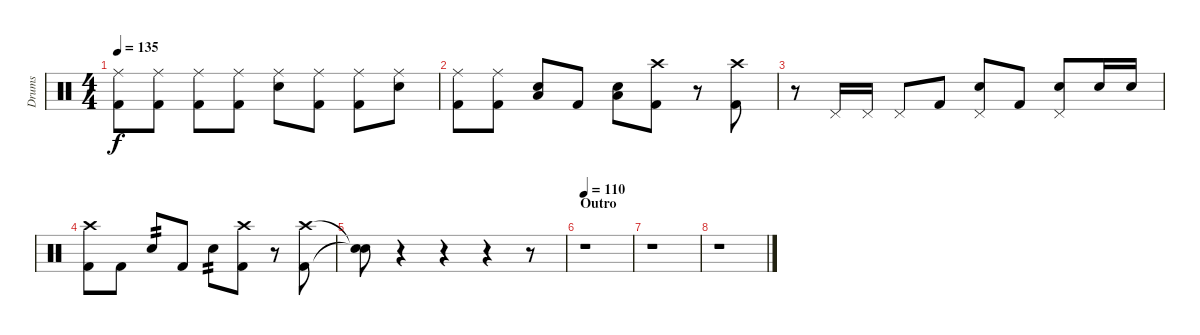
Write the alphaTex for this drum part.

\track ("Drums" "Drums") {instrument percussion}
\staff {score}
\articulation defaults
\ts (4 4)
\tempo 135
\clef neutral
\ks c
("Ride (middle)" "Kick (hit) 2").8{dy f} ("Ride (middle)" "Kick (hit) 2").8 ("Ride (middle)" "Kick (hit) 2").8 ("Ride (middle)" "Kick (hit) 2").8 ("Ride (middle)" "Snare (hit) 2").8 ("Ride (middle)" "Kick (hit) 2").8 ("Ride (middle)" "Kick (hit) 2").8 ("Ride (middle)" "Snare (hit) 2").8 |
("Ride (middle)" "Kick (hit) 2").8 ("Ride (middle)" "Kick (hit) 2").8 ("Low Floor Tom (hit)" "Snare (hit) 2").8 "Kick (hit) 2".8 ("Low Floor Tom (hit)" "Snare (hit) 2").8 ("Crash high (hit)" "Kick (hit) 2").8 r.8 ("Crash high (hit)" "Kick (hit) 2").8 |
r.8 "Pedal Hi-Hat (hit)".16 "Pedal Hi-Hat (hit)".16 "Pedal Hi-Hat (hit)".8 "Kick (hit) 2".8 ("Pedal Hi-Hat (hit)" "Snare (hit) 2").8 "Kick (hit) 2".8 ("Pedal Hi-Hat (hit)" "Snare (hit) 2").8 "Snare (hit) 2".16 "Snare (hit) 2".16 |
("Crash high (hit)" "Kick (hit) 2").8 "Kick (hit) 2".8 "Snare (hit) 2".8{tp 2} "Kick (hit) 2".8 "Snare (hit) 2".8{tp 2} ("Crash high (hit)" "Kick (hit) 2").8 r.8 ("Crash high (hit)" "Kick (hit) 2").8 |
("Snare (hit)"{t} "Snare (hit)"{t}).8 r.4 r.4 r.4 r.8 |
\section ("" "Outro")
\tempo 110
r.1 |
r.1 |
r.1
